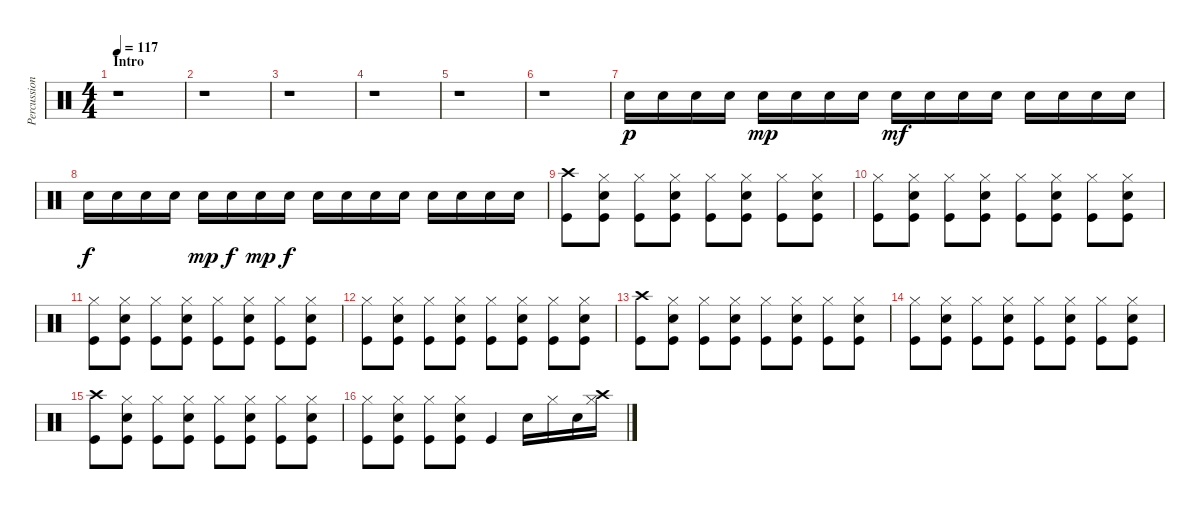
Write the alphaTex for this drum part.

\track ("Percussion" "Percussion") {instrument percussion}
\staff {score}
\articulation defaults
\ts (4 4)
\section ("" "Intro")
\tempo 117
\clef neutral
\ks c
r.1{dy p} |
r.1 |
r.1 |
r.1 |
r.1 |
r.1 |
"Snare (hit) 2".16 "Snare (hit) 2".16 "Snare (hit) 2".16 "Snare (hit) 2".16 "Snare (hit) 2".16{dy mp} "Snare (hit) 2".16 "Snare (hit) 2".16 "Snare (hit) 2".16 "Snare (hit) 2".16{dy mf} "Snare (hit) 2".16 "Snare (hit) 2".16 "Snare (hit) 2".16 "Snare (hit) 2".16 "Snare (hit) 2".16 "Snare (hit) 2".16 "Snare (hit) 2".16 |
"Snare (hit) 2".16{dy f} "Snare (hit) 2".16 "Snare (hit) 2".16 "Snare (hit) 2".16 "Snare (hit) 2".16{dy mp} "Snare (hit) 2".16{dy f} "Snare (hit) 2".16{dy mp} "Snare (hit) 2".16{dy f} "Snare (hit) 2".16 "Snare (hit) 2".16 "Snare (hit) 2".16 "Snare (hit) 2".16 "Snare (hit) 2".16 "Snare (hit) 2".16 "Snare (hit) 2".16 "Snare (hit) 2".16 |
("Crash high (hit)" "Kick (hit)").8 ("Hi-Hat (closed)" "Snare (hit) 2" "Kick (hit)").8 ("Hi-Hat (closed)" "Kick (hit)").8 ("Hi-Hat (closed)" "Snare (hit) 2" "Kick (hit)").8 ("Hi-Hat (closed)" "Kick (hit)").8 ("Hi-Hat (closed)" "Snare (hit) 2" "Kick (hit)").8 ("Hi-Hat (closed)" "Kick (hit)").8 ("Hi-Hat (closed)" "Snare (hit) 2" "Kick (hit)").8 |
("Hi-Hat (closed)" "Kick (hit)").8 ("Hi-Hat (closed)" "Snare (hit) 2" "Kick (hit)").8 ("Hi-Hat (closed)" "Kick (hit)").8 ("Hi-Hat (closed)" "Snare (hit) 2" "Kick (hit)").8 ("Hi-Hat (closed)" "Kick (hit)").8 ("Hi-Hat (closed)" "Snare (hit) 2" "Kick (hit)").8 ("Hi-Hat (closed)" "Kick (hit)").8 ("Hi-Hat (closed)" "Snare (hit) 2" "Kick (hit)").8 |
("Hi-Hat (closed)" "Kick (hit)").8 ("Hi-Hat (closed)" "Snare (hit) 2" "Kick (hit)").8 ("Hi-Hat (closed)" "Kick (hit)").8 ("Hi-Hat (closed)" "Snare (hit) 2" "Kick (hit)").8 ("Hi-Hat (closed)" "Kick (hit)").8 ("Hi-Hat (closed)" "Snare (hit) 2" "Kick (hit)").8 ("Hi-Hat (closed)" "Kick (hit)").8 ("Hi-Hat (closed)" "Snare (hit) 2" "Kick (hit)").8 |
("Hi-Hat (closed)" "Kick (hit)").8 ("Hi-Hat (closed)" "Snare (hit) 2" "Kick (hit)").8 ("Hi-Hat (closed)" "Kick (hit)").8 ("Hi-Hat (closed)" "Snare (hit) 2" "Kick (hit)").8 ("Hi-Hat (closed)" "Kick (hit)").8 ("Hi-Hat (closed)" "Snare (hit) 2" "Kick (hit)").8 ("Hi-Hat (closed)" "Kick (hit)").8 ("Hi-Hat (closed)" "Snare (hit) 2" "Kick (hit)").8 |
("Crash high (hit)" "Kick (hit)").8 ("Hi-Hat (closed)" "Snare (hit) 2" "Kick (hit)").8 ("Hi-Hat (closed)" "Kick (hit)").8 ("Hi-Hat (closed)" "Snare (hit) 2" "Kick (hit)").8 ("Hi-Hat (closed)" "Kick (hit)").8 ("Hi-Hat (closed)" "Snare (hit) 2" "Kick (hit)").8 ("Hi-Hat (closed)" "Kick (hit)").8 ("Hi-Hat (closed)" "Snare (hit) 2" "Kick (hit)").8 |
("Hi-Hat (closed)" "Kick (hit)").8 ("Hi-Hat (closed)" "Snare (hit) 2" "Kick (hit)").8 ("Hi-Hat (closed)" "Kick (hit)").8 ("Hi-Hat (closed)" "Snare (hit) 2" "Kick (hit)").8 ("Hi-Hat (closed)" "Kick (hit)").8 ("Hi-Hat (closed)" "Snare (hit) 2" "Kick (hit)").8 ("Hi-Hat (closed)" "Kick (hit)").8 ("Hi-Hat (closed)" "Snare (hit) 2" "Kick (hit)").8 |
("Crash high (hit)" "Kick (hit)").8 ("Hi-Hat (closed)" "Snare (hit) 2" "Kick (hit)").8 ("Hi-Hat (closed)" "Kick (hit)").8 ("Hi-Hat (closed)" "Snare (hit) 2" "Kick (hit)").8 ("Hi-Hat (closed)" "Kick (hit)").8 ("Hi-Hat (closed)" "Snare (hit) 2" "Kick (hit)").8 ("Hi-Hat (closed)" "Kick (hit)").8 ("Hi-Hat (closed)" "Snare (hit) 2" "Kick (hit)").8 |
("Hi-Hat (closed)" "Kick (hit)").8 ("Hi-Hat (closed)" "Snare (hit) 2" "Kick (hit)").8 ("Hi-Hat (closed)" "Kick (hit)").8 ("Hi-Hat (closed)" "Snare (hit) 2" "Kick (hit)").8 "Kick (hit)".4 "Snare (hit) 2".16 "Hi-Hat (closed)".16 "Snare (hit) 2".16 ("Crash high (hit)" "Hi-Hat (closed)").16
